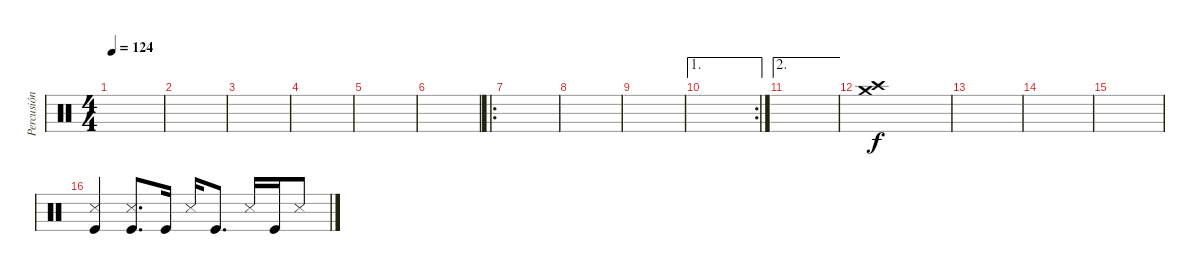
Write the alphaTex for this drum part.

\track ("Percusión" "Percusión") {instrument percussion bank 2}
\staff {score}
\articulation defaults
\ts (4 4)
\tempo 124
\clef neutral
\ks c
|
|
|
|
|
|
\ro
|
|
|
\ae 1
\rc 2
|
\ae 2
|
("Crash high (hit)" "Crash medium (hit)").1 |
|
|
|
("Snare (side stick) 3" "Kick (hit)").4{volume 2} ("Snare (side stick) 3" "Kick (hit)").8{d volume 8} "Kick (hit)".16 "Snare (side stick) 3".16 "Kick (hit)".8{d} "Snare (side stick) 3".16 "Kick (hit)".16 "Snare (side stick) 3".8
